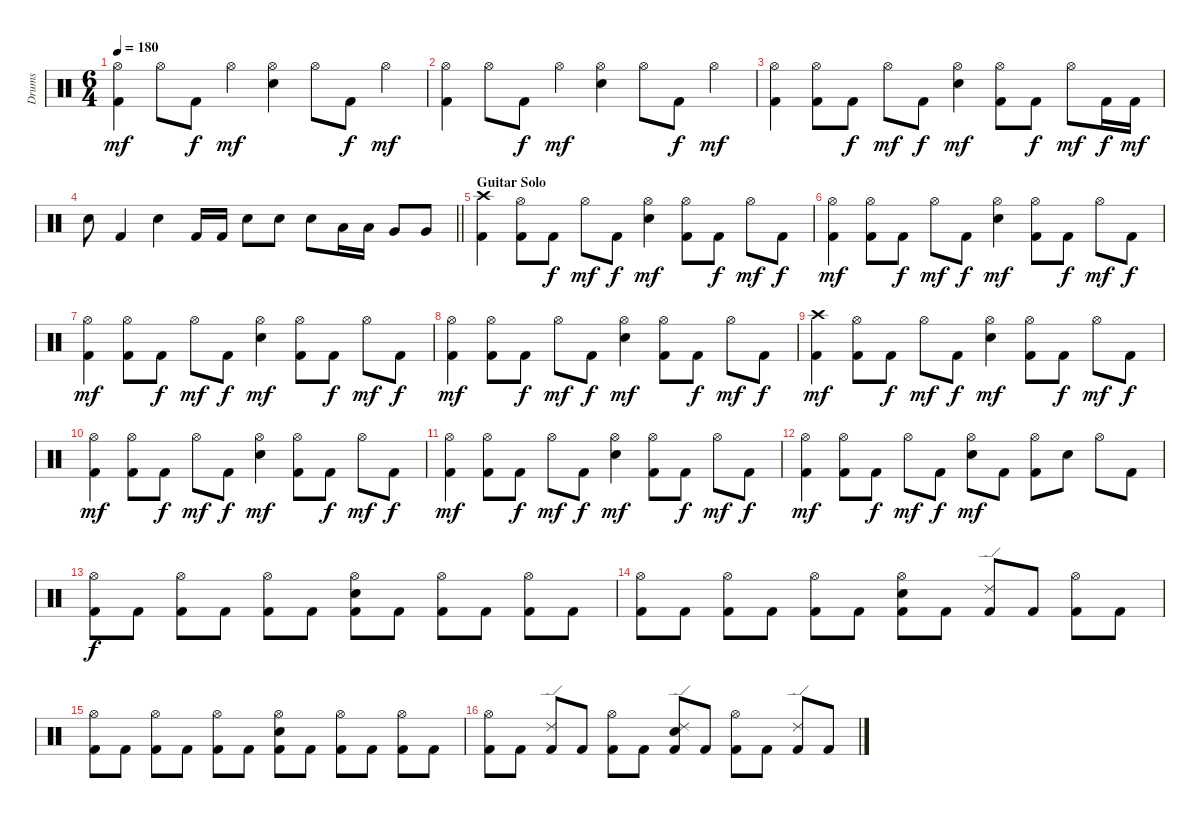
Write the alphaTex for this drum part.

\track ("Drums" "Drums") {instrument percussion}
\staff {score}
\articulation defaults
\ts (6 4)
\tempo 180
\clef neutral
\ks c
("Hi-Hat (open)" "Kick (hit) 2").4{dy mf} "Hi-Hat (open)".8 "Kick (hit) 2".8{dy f} "Hi-Hat (open)".4{dy mf} ("Hi-Hat (open)" "Snare (hit) 2").4 "Hi-Hat (open)".8 "Kick (hit) 2".8{dy f} "Hi-Hat (open)".4{dy mf} |
("Hi-Hat (open)" "Kick (hit) 2").4 "Hi-Hat (open)".8 "Kick (hit) 2".8{dy f} "Hi-Hat (open)".4{dy mf} ("Hi-Hat (open)" "Snare (hit) 2").4 "Hi-Hat (open)".8 "Kick (hit) 2".8{dy f} "Hi-Hat (open)".4{dy mf} |
("Hi-Hat (open)" "Kick (hit) 2").4 ("Hi-Hat (open)" "Kick (hit) 2").8 "Kick (hit) 2".8{dy f} "Hi-Hat (open)".8{dy mf} "Kick (hit) 2".8{dy f} ("Hi-Hat (open)" "Snare (hit) 2").4{dy mf} ("Hi-Hat (open)" "Kick (hit) 2").8 "Kick (hit) 2".8{dy f} "Hi-Hat (open)".8{dy mf} "Kick (hit) 2".16{dy f} "Kick (hit) 2".16{dy mf} |
\barLineRight lightlight "Snare (hit) 2".8 "Kick (hit) 2".4 "Snare (hit) 2".4 "Kick (hit) 2".16 "Kick (hit) 2".16 "Snare (hit) 2".8 "Snare (hit) 2".8 "Snare (hit) 2".8 "Low Tom (hit)".16 "Low Tom (hit)".16 "Very Low Tom (hit)".8 "Very Low Tom (hit)".8
|
\section ("" "Guitar Solo")
("Crash high (hit)" "Kick (hit) 2").4 ("Hi-Hat (open)" "Kick (hit) 2").8 "Kick (hit) 2".8{dy f} "Hi-Hat (open)".8{dy mf} "Kick (hit) 2".8{dy f} ("Hi-Hat (open)" "Snare (hit) 2").4{dy mf} ("Hi-Hat (open)" "Kick (hit) 2").8 "Kick (hit) 2".8{dy f} "Hi-Hat (open)".8{dy mf} "Kick (hit) 2".8{dy f} |
("Hi-Hat (open)" "Kick (hit) 2").4{dy mf} ("Hi-Hat (open)" "Kick (hit) 2").8 "Kick (hit) 2".8{dy f} "Hi-Hat (open)".8{dy mf} "Kick (hit) 2".8{dy f} ("Hi-Hat (open)" "Snare (hit) 2").4{dy mf} ("Hi-Hat (open)" "Kick (hit) 2").8 "Kick (hit) 2".8{dy f} "Hi-Hat (open)".8{dy mf} "Kick (hit) 2".8{dy f} |
("Hi-Hat (open)" "Kick (hit) 2").4{dy mf} ("Hi-Hat (open)" "Kick (hit) 2").8 "Kick (hit) 2".8{dy f} "Hi-Hat (open)".8{dy mf} "Kick (hit) 2".8{dy f} ("Hi-Hat (open)" "Snare (hit) 2").4{dy mf} ("Hi-Hat (open)" "Kick (hit) 2").8 "Kick (hit) 2".8{dy f} "Hi-Hat (open)".8{dy mf} "Kick (hit) 2".8{dy f} |
("Hi-Hat (open)" "Kick (hit) 2").4{dy mf} ("Hi-Hat (open)" "Kick (hit) 2").8 "Kick (hit) 2".8{dy f} "Hi-Hat (open)".8{dy mf} "Kick (hit) 2".8{dy f} ("Hi-Hat (open)" "Snare (hit) 2").4{dy mf} ("Hi-Hat (open)" "Kick (hit) 2").8 "Kick (hit) 2".8{dy f} "Hi-Hat (open)".8{dy mf} "Kick (hit) 2".8{dy f} |
("Crash high (hit)" "Kick (hit) 2").4{dy mf} ("Hi-Hat (open)" "Kick (hit) 2").8 "Kick (hit) 2".8{dy f} "Hi-Hat (open)".8{dy mf} "Kick (hit) 2".8{dy f} ("Hi-Hat (open)" "Snare (hit) 2").4{dy mf} ("Hi-Hat (open)" "Kick (hit) 2").8 "Kick (hit) 2".8{dy f} "Hi-Hat (open)".8{dy mf} "Kick (hit) 2".8{dy f} |
("Hi-Hat (open)" "Kick (hit) 2").4{dy mf} ("Hi-Hat (open)" "Kick (hit) 2").8 "Kick (hit) 2".8{dy f} "Hi-Hat (open)".8{dy mf} "Kick (hit) 2".8{dy f} ("Hi-Hat (open)" "Snare (hit) 2").4{dy mf} ("Hi-Hat (open)" "Kick (hit) 2").8 "Kick (hit) 2".8{dy f} "Hi-Hat (open)".8{dy mf} "Kick (hit) 2".8{dy f} |
("Hi-Hat (open)" "Kick (hit) 2").4{dy mf} ("Hi-Hat (open)" "Kick (hit) 2").8 "Kick (hit) 2".8{dy f} "Hi-Hat (open)".8{dy mf} "Kick (hit) 2".8{dy f} ("Hi-Hat (open)" "Snare (hit) 2").4{dy mf} ("Hi-Hat (open)" "Kick (hit) 2").8 "Kick (hit) 2".8{dy f} "Hi-Hat (open)".8{dy mf} "Kick (hit) 2".8{dy f} |
("Hi-Hat (open)" "Kick (hit) 2").4{dy mf} ("Hi-Hat (open)" "Kick (hit) 2").8 "Kick (hit) 2".8{dy f} "Hi-Hat (open)".8{dy mf} "Kick (hit) 2".8{dy f} ("Hi-Hat (open)" "Snare (hit) 2").8{dy mf} "Kick (hit) 2".8 ("Hi-Hat (open)" "Kick (hit) 2").8 "Snare (hit) 2".8 "Hi-Hat (open)".8 "Kick (hit) 2".8 |
("Hi-Hat (open)" "Kick (hit) 2").8{dy f} "Kick (hit) 2".8 ("Hi-Hat (open)" "Kick (hit) 2").8 "Kick (hit) 2".8 ("Hi-Hat (open)" "Kick (hit) 2").8 "Kick (hit) 2".8 ("Hi-Hat (open)" "Snare (hit) 2" "Kick (hit) 2").8 "Kick (hit) 2".8 ("Hi-Hat (open)" "Kick (hit) 2").8 "Kick (hit) 2".8 ("Hi-Hat (open)" "Kick (hit) 2").8 "Kick (hit) 2".8 |
("Hi-Hat (open)" "Kick (hit) 2").8 "Kick (hit) 2".8 ("Hi-Hat (open)" "Kick (hit) 2").8 "Kick (hit) 2".8 ("Hi-Hat (open)" "Kick (hit) 2").8 "Kick (hit) 2".8 ("Hi-Hat (open)" "Snare (hit) 2" "Kick (hit) 2").8 "Kick (hit) 2".8 ("Ride (edge) 2" "Kick (hit) 2").8 "Kick (hit) 2".8 ("Hi-Hat (open)" "Kick (hit) 2").8 "Kick (hit) 2".8 |
("Hi-Hat (open)" "Kick (hit) 2").8 "Kick (hit) 2".8 ("Hi-Hat (open)" "Kick (hit) 2").8 "Kick (hit) 2".8 ("Hi-Hat (open)" "Kick (hit) 2").8 "Kick (hit) 2".8 ("Hi-Hat (open)" "Snare (hit) 2" "Kick (hit) 2").8 "Kick (hit) 2".8 ("Hi-Hat (open)" "Kick (hit) 2").8 "Kick (hit) 2".8 ("Hi-Hat (open)" "Kick (hit) 2").8 "Kick (hit) 2".8 |
("Hi-Hat (open)" "Kick (hit) 2").8 "Kick (hit) 2".8 ("Ride (edge) 2" "Kick (hit) 2").8 "Kick (hit) 2".8 ("Hi-Hat (open)" "Kick (hit) 2").8 "Kick (hit) 2".8 ("Ride (edge) 2" "Snare (hit) 2" "Kick (hit) 2").8 "Kick (hit) 2".8 ("Hi-Hat (open)" "Kick (hit) 2").8 "Kick (hit) 2".8 ("Ride (edge) 2" "Kick (hit) 2").8 "Kick (hit) 2".8
